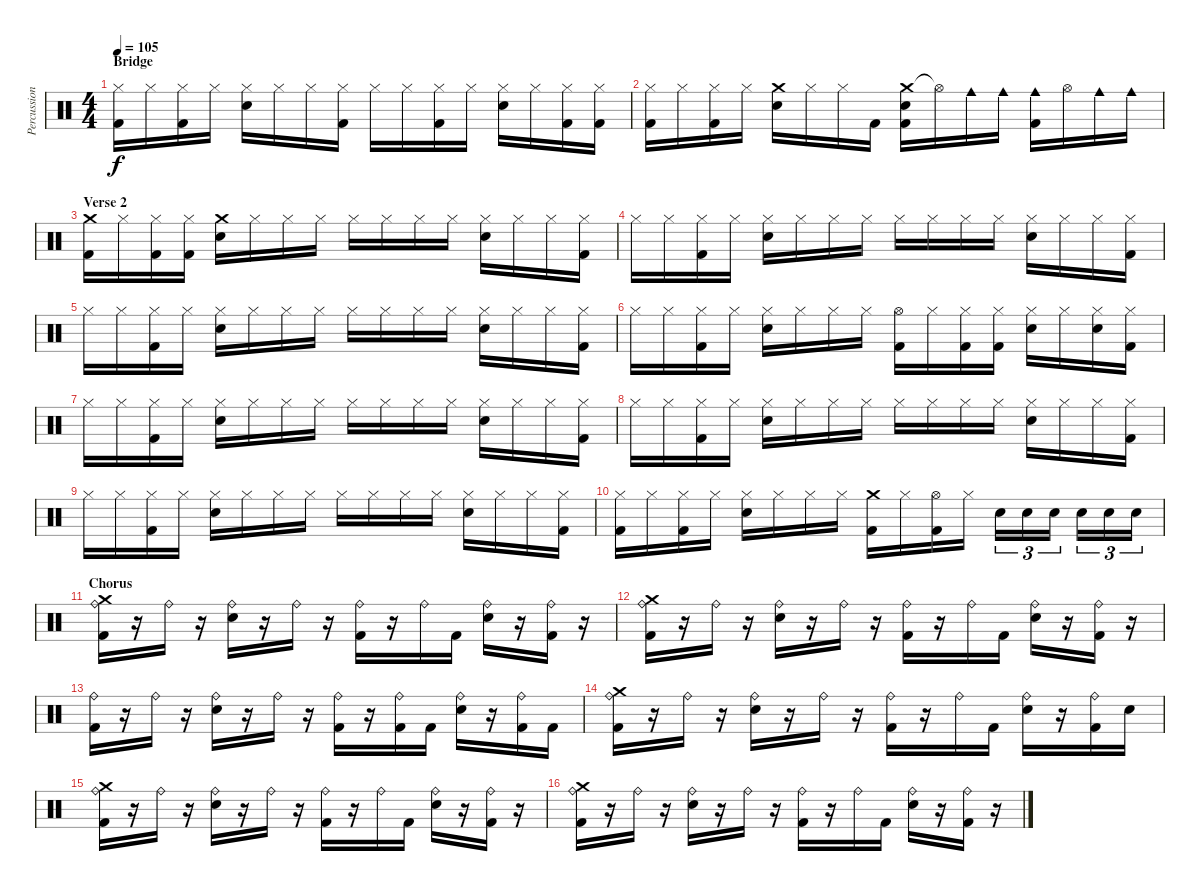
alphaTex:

\track ("Percussion" "Percussion") {instrument percussion}
\staff {score}
\articulation defaults
\ts (4 4)
\section ("" "Bridge")
\tempo 105
\clef neutral
\ks c
("Hi-Hat (closed)" "Kick (hit) 2").16{dy f} "Hi-Hat (closed)".16 ("Hi-Hat (closed)" "Kick (hit) 2").16 "Hi-Hat (closed)".16 ("Hi-Hat (closed)" "Snare (hit) 2").16 "Hi-Hat (closed)".16 "Hi-Hat (closed)".16 ("Hi-Hat (closed)" "Kick (hit) 2").16 "Hi-Hat (closed)".16 "Hi-Hat (closed)".16 ("Hi-Hat (closed)" "Kick (hit) 2").16 "Hi-Hat (closed)".16 ("Hi-Hat (closed)" "Snare (hit) 2").16 "Hi-Hat (closed)".16 ("Hi-Hat (closed)" "Kick (hit) 2").16 ("Hi-Hat (closed)" "Kick (hit) 2").16 |
("Hi-Hat (closed)" "Kick (hit) 2").16 "Hi-Hat (closed)".16 ("Hi-Hat (closed)" "Kick (hit) 2").16 "Hi-Hat (closed)".16 ("Crash medium (hit)" "Snare (hit) 2").16 "Hi-Hat (closed)".16 "Hi-Hat (closed)".16 "Kick (hit) 2".16 ("Crash medium (hit)" "Snare (hit) 2" "Kick (hit) 2").16 "Hi-Hat (open)"{t}.16 "Cowbell medium (hit)".16 "Cowbell medium (hit)".16 ("Cowbell medium (hit)" "Kick (hit) 2").16 "Hi-Hat (open)".16 "Cowbell medium (hit)".16 "Cowbell medium (hit)".16 |
\section ("" "Verse 2")
("Crash medium (hit)" "Kick (hit) 2").16 "Hi-Hat (closed)".16 ("Hi-Hat (closed)" "Kick (hit) 2").16 ("Hi-Hat (closed)" "Kick (hit) 2").16 ("Crash medium (hit)" "Snare (hit) 2").16 "Hi-Hat (closed)".16 "Hi-Hat (closed)".16 "Hi-Hat (closed)".16 "Hi-Hat (closed)".16 "Hi-Hat (closed)".16 "Hi-Hat (closed)".16 "Hi-Hat (closed)".16 ("Hi-Hat (closed)" "Snare (hit) 2").16 "Hi-Hat (closed)".16 "Hi-Hat (closed)".16 ("Hi-Hat (closed)" "Kick (hit) 2").16 |
"Hi-Hat (closed)".16 "Hi-Hat (closed)".16 ("Hi-Hat (closed)" "Kick (hit) 2").16 "Hi-Hat (closed)".16 ("Hi-Hat (closed)" "Snare (hit) 2").16 "Hi-Hat (closed)".16 "Hi-Hat (closed)".16 "Hi-Hat (closed)".16 "Hi-Hat (closed)".16 "Hi-Hat (closed)".16 "Hi-Hat (closed)".16 "Hi-Hat (closed)".16 ("Hi-Hat (closed)" "Snare (hit) 2").16 "Hi-Hat (closed)".16 "Hi-Hat (closed)".16 ("Hi-Hat (closed)" "Kick (hit) 2").16 |
"Hi-Hat (closed)".16 "Hi-Hat (closed)".16 ("Hi-Hat (closed)" "Kick (hit) 2").16 "Hi-Hat (closed)".16 ("Hi-Hat (closed)" "Snare (hit) 2").16 "Hi-Hat (closed)".16 "Hi-Hat (closed)".16 "Hi-Hat (closed)".16 "Hi-Hat (closed)".16 "Hi-Hat (closed)".16 "Hi-Hat (closed)".16 "Hi-Hat (closed)".16 ("Hi-Hat (closed)" "Snare (hit) 2").16 "Hi-Hat (closed)".16 "Hi-Hat (closed)".16 ("Hi-Hat (closed)" "Kick (hit) 2").16 |
"Hi-Hat (closed)".16 "Hi-Hat (closed)".16 ("Hi-Hat (closed)" "Kick (hit) 2").16 "Hi-Hat (closed)".16 ("Hi-Hat (closed)" "Snare (hit) 2").16 "Hi-Hat (closed)".16 "Hi-Hat (closed)".16 "Hi-Hat (closed)".16 ("Hi-Hat (open)" "Kick (hit) 2").16 "Hi-Hat (closed)".16 ("Hi-Hat (closed)" "Kick (hit) 2").16 ("Hi-Hat (closed)" "Kick (hit) 2").16 ("Hi-Hat (closed)" "Snare (hit) 2").16 "Hi-Hat (closed)".16 ("Hi-Hat (closed)" "Snare (hit) 2").16 ("Hi-Hat (closed)" "Kick (hit) 2").16 |
"Hi-Hat (closed)".16 "Hi-Hat (closed)".16 ("Hi-Hat (closed)" "Kick (hit) 2").16 "Hi-Hat (closed)".16 ("Hi-Hat (closed)" "Snare (hit) 2").16 "Hi-Hat (closed)".16 "Hi-Hat (closed)".16 "Hi-Hat (closed)".16 "Hi-Hat (closed)".16 "Hi-Hat (closed)".16 "Hi-Hat (closed)".16 "Hi-Hat (closed)".16 ("Hi-Hat (closed)" "Snare (hit) 2").16 "Hi-Hat (closed)".16 "Hi-Hat (closed)".16 ("Hi-Hat (closed)" "Kick (hit) 2").16 |
"Hi-Hat (closed)".16 "Hi-Hat (closed)".16 ("Hi-Hat (closed)" "Kick (hit) 2").16 "Hi-Hat (closed)".16 ("Hi-Hat (closed)" "Snare (hit) 2").16 "Hi-Hat (closed)".16 "Hi-Hat (closed)".16 "Hi-Hat (closed)".16 "Hi-Hat (closed)".16 "Hi-Hat (closed)".16 "Hi-Hat (closed)".16 "Hi-Hat (closed)".16 ("Hi-Hat (closed)" "Snare (hit) 2").16 "Hi-Hat (closed)".16 "Hi-Hat (closed)".16 ("Hi-Hat (closed)" "Kick (hit) 2").16 |
"Hi-Hat (closed)".16 "Hi-Hat (closed)".16 ("Hi-Hat (closed)" "Kick (hit) 2").16 "Hi-Hat (closed)".16 ("Hi-Hat (closed)" "Snare (hit) 2").16 "Hi-Hat (closed)".16 "Hi-Hat (closed)".16 "Hi-Hat (closed)".16 "Hi-Hat (closed)".16 "Hi-Hat (closed)".16 "Hi-Hat (closed)".16 "Hi-Hat (closed)".16 ("Hi-Hat (closed)" "Snare (hit) 2").16 "Hi-Hat (closed)".16 "Hi-Hat (closed)".16 ("Hi-Hat (closed)" "Kick (hit) 2").16 |
("Hi-Hat (closed)" "Kick (hit) 2").16 "Hi-Hat (closed)".16 ("Hi-Hat (closed)" "Kick (hit) 2").16 "Hi-Hat (closed)".16 ("Hi-Hat (closed)" "Snare (hit) 2").16 "Hi-Hat (closed)".16 "Hi-Hat (closed)".16 "Hi-Hat (closed)".16 ("Crash medium (hit)" "Kick (hit) 2").16 "Hi-Hat (closed)".16 ("Hi-Hat (open)" "Kick (hit) 2").16 "Hi-Hat (closed)".16 "Snare (hit) 2".16{tu (3 2)} "Snare (hit) 2".16{tu (3 2)} "Snare (hit) 2".16{tu (3 2)} "Snare (hit) 2".16{tu (3 2)} "Snare (hit) 2".16{tu (3 2)} "Snare (hit) 2".16{tu (3 2)} |
\section ("" "Chorus")
("Ride (bell)" "Crash medium (hit)" "Kick (hit) 2").16 r.16 "Ride (bell)".16 r.16 ("Ride (bell)" "Snare (hit) 2").16 r.16 "Ride (bell)".16 r.16 ("Ride (bell)" "Kick (hit) 2").16 r.16 "Ride (bell)".16 "Kick (hit) 2".16 ("Ride (bell)" "Snare (hit) 2").16 r.16 ("Ride (bell)" "Kick (hit) 2").16 r.16 |
("Ride (bell)" "Crash medium (hit)" "Kick (hit) 2").16 r.16 "Ride (bell)".16 r.16 ("Ride (bell)" "Snare (hit) 2").16 r.16 "Ride (bell)".16 r.16 ("Ride (bell)" "Kick (hit) 2").16 r.16 "Ride (bell)".16 "Kick (hit) 2".16 ("Ride (bell)" "Snare (hit) 2").16 r.16 ("Ride (bell)" "Kick (hit) 2").16 r.16 |
("Ride (bell)" "Kick (hit) 2").16 r.16 "Ride (bell)".16 r.16 ("Ride (bell)" "Snare (hit) 2").16 r.16 "Ride (bell)".16 r.16 ("Ride (bell)" "Kick (hit) 2").16 r.16 ("Ride (bell)" "Kick (hit) 2").16 "Kick (hit) 2".16 ("Ride (bell)" "Snare (hit) 2").16 r.16 ("Ride (bell)" "Kick (hit) 2").16 "Kick (hit) 2".16 |
("Ride (bell)" "Crash medium (hit)" "Kick (hit) 2").16 r.16 "Ride (bell)".16 r.16 ("Ride (bell)" "Snare (hit) 2").16 r.16 "Ride (bell)".16 r.16 ("Ride (bell)" "Kick (hit) 2").16 r.16 "Ride (bell)".16 "Kick (hit) 2".16 ("Ride (bell)" "Snare (hit) 2").16 r.16 ("Ride (bell)" "Kick (hit) 2").16 "Snare (hit) 2".16 |
("Ride (bell)" "Crash medium (hit)" "Kick (hit) 2").16 r.16 "Ride (bell)".16 r.16 ("Ride (bell)" "Snare (hit) 2").16 r.16 "Ride (bell)".16 r.16 ("Ride (bell)" "Kick (hit) 2").16 r.16 "Ride (bell)".16 "Kick (hit) 2".16 ("Ride (bell)" "Snare (hit) 2").16 r.16 ("Ride (bell)" "Kick (hit) 2").16 r.16 |
("Ride (bell)" "Crash medium (hit)" "Kick (hit) 2").16 r.16 "Ride (bell)".16 r.16 ("Ride (bell)" "Snare (hit) 2").16 r.16 "Ride (bell)".16 r.16 ("Ride (bell)" "Kick (hit) 2").16 r.16 "Ride (bell)".16 "Kick (hit) 2".16 ("Ride (bell)" "Snare (hit) 2").16 r.16 ("Ride (bell)" "Kick (hit) 2").16 r.16
